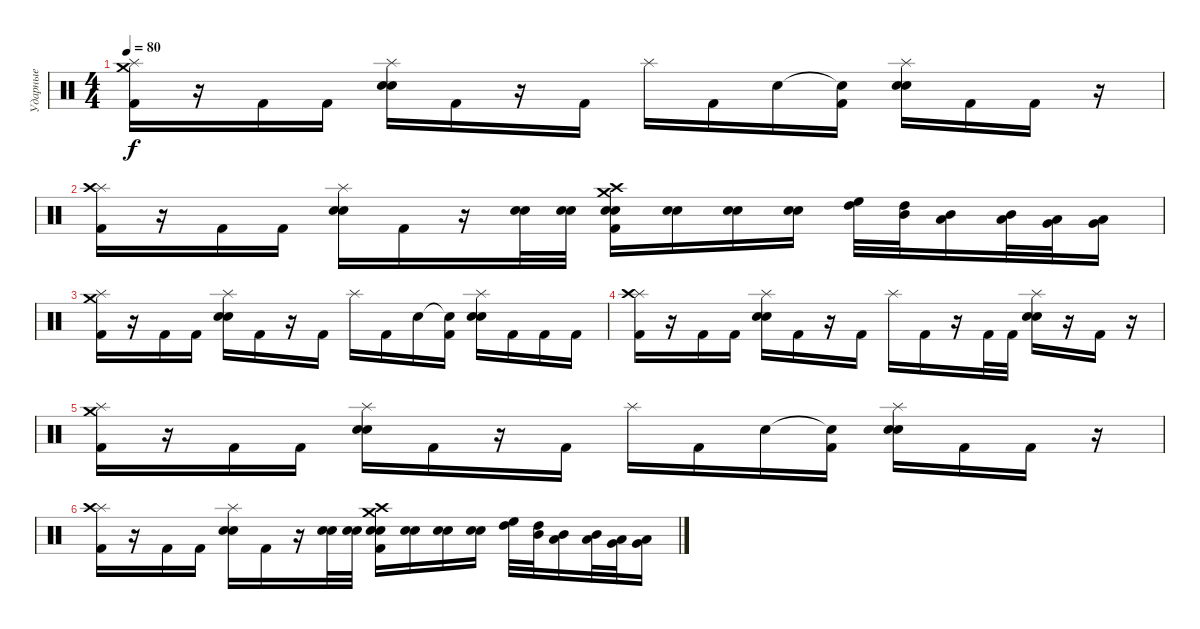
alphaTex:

\track ("Ударные" "Ударные") {instrument percussion}
\staff {score}
\articulation defaults
\ts (4 4)
\tempo 80
\clef neutral
\ks c
("Splash (hit)" "Crash medium (hit)" "Kick (hit) 2").16{dy f} r.16 "Kick (hit) 2".16 "Kick (hit) 2".16 ("Splash (hit)" "Electric Snare (hit)" "Snare (hit)").16 "Kick (hit) 2".16 r.16 "Kick (hit) 2".16 "Splash (hit)".16 "Kick (hit) 2".16 "Snare (hit)".16 ("Snare (hit)"{t} "Kick (hit) 2").16 ("Splash (hit)" "Electric Snare (hit)" "Snare (hit)").16 "Kick (hit) 2".16 "Kick (hit) 2".16 r.16 |
("Splash (hit)" "Crash high (hit)" "Kick (hit) 2").16 r.16 "Kick (hit) 2".16 "Kick (hit) 2".16 ("Splash (hit)" "Electric Snare (hit)" "Snare (hit)").16 "Kick (hit) 2".16 r.16 ("Electric Snare (hit)" "Snare (hit)").32 ("Electric Snare (hit)" "Snare (hit)").32 ("Crash medium (hit)" "Crash high (hit)" "Electric Snare (hit)" "Snare (hit)" "Kick (hit) 2").16 ("Electric Snare (hit)" "Snare (hit)").16 ("Electric Snare (hit)" "Snare (hit)").16 ("Electric Snare (hit)" "Snare (hit)").16 ("High Floor Tom (hit)" "High Tom (hit)").32 ("High Tom (hit)" "Mid Tom (hit)").32 ("Mid Tom (hit)" "Low Tom (hit)").16 ("Mid Tom (hit)" "Low Tom (hit)").32 ("Low Tom (hit)" "Very Low Tom (hit)").32 ("Very Low Tom (hit)" "Low Floor Tom (hit)").16 |
("Splash (hit)" "Crash medium (hit)" "Kick (hit) 2").16 r.16 "Kick (hit) 2".16 "Kick (hit) 2".16 ("Splash (hit)" "Electric Snare (hit)" "Snare (hit)").16 "Kick (hit) 2".16 r.16 "Kick (hit) 2".16 "Splash (hit)".16 "Kick (hit) 2".16 "Snare (hit)".16 ("Snare (hit)"{t} "Kick (hit) 2").16 ("Splash (hit)" "Electric Snare (hit)" "Snare (hit)").16 "Kick (hit) 2".16 "Kick (hit) 2".16 "Kick (hit) 2".16 |
("Splash (hit)" "Crash high (hit)" "Kick (hit) 2").16 r.16 "Kick (hit) 2".16 "Kick (hit) 2".16 ("Splash (hit)" "Electric Snare (hit)" "Snare (hit)").16 "Kick (hit) 2".16 r.16 "Kick (hit) 2".16 "Splash (hit)".16 "Kick (hit) 2".16 r.16 "Kick (hit) 2".32 "Kick (hit) 2".32 ("Splash (hit)" "Electric Snare (hit)" "Snare (hit)").16 r.16 "Kick (hit) 2".16 r.16 |
("Splash (hit)" "Crash medium (hit)" "Kick (hit) 2").16 r.16 "Kick (hit) 2".16 "Kick (hit) 2".16 ("Splash (hit)" "Electric Snare (hit)" "Snare (hit)").16 "Kick (hit) 2".16 r.16 "Kick (hit) 2".16 "Splash (hit)".16 "Kick (hit) 2".16 "Snare (hit)".16 ("Snare (hit)"{t} "Kick (hit) 2").16 ("Splash (hit)" "Electric Snare (hit)" "Snare (hit)").16 "Kick (hit) 2".16 "Kick (hit) 2".16 r.16 |
("Splash (hit)" "Crash high (hit)" "Kick (hit) 2").16 r.16 "Kick (hit) 2".16 "Kick (hit) 2".16 ("Splash (hit)" "Electric Snare (hit)" "Snare (hit)").16 "Kick (hit) 2".16 r.16 ("Electric Snare (hit)" "Snare (hit)").32 ("Electric Snare (hit)" "Snare (hit)").32 ("Crash medium (hit)" "Crash high (hit)" "Electric Snare (hit)" "Snare (hit)" "Kick (hit) 2").16 ("Electric Snare (hit)" "Snare (hit)").16 ("Electric Snare (hit)" "Snare (hit)").16 ("Electric Snare (hit)" "Snare (hit)").16 ("High Floor Tom (hit)" "High Tom (hit)").32 ("High Tom (hit)" "Mid Tom (hit)").32 ("Mid Tom (hit)" "Low Tom (hit)").16 ("Mid Tom (hit)" "Low Tom (hit)").32 ("Low Tom (hit)" "Very Low Tom (hit)").32 ("Very Low Tom (hit)" "Low Floor Tom (hit)").16
